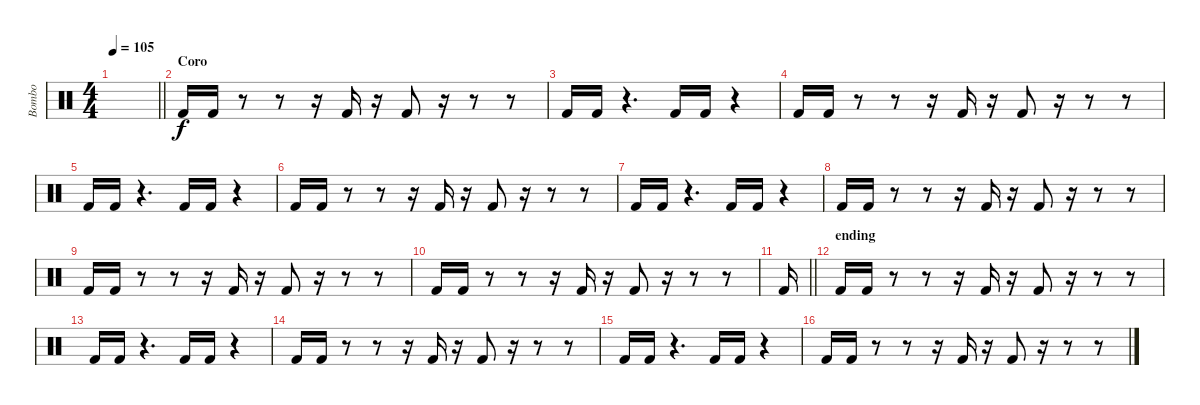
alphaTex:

\track ("Bombo" "Bombo") {instrument percussion}
\staff {score}
\articulation defaults
\ts (4 4)
\tempo 105
\clef neutral
\barLineRight lightlight
\ks c
|
\section ("" "Coro")
"Kick (hit) 2".16{dy f} "Kick (hit) 2".16 r.8 r.8 r.16 "Kick (hit) 2".16 r.16 "Kick (hit) 2".8 r.16 r.8 r.8 |
"Kick (hit) 2".16 "Kick (hit) 2".16 r.4{d} "Kick (hit) 2".16 "Kick (hit) 2".16 r.4 |
"Kick (hit) 2".16 "Kick (hit) 2".16 r.8 r.8 r.16 "Kick (hit) 2".16 r.16 "Kick (hit) 2".8 r.16 r.8 r.8 |
"Kick (hit) 2".16 "Kick (hit) 2".16 r.4{d} "Kick (hit) 2".16 "Kick (hit) 2".16 r.4 |
"Kick (hit) 2".16 "Kick (hit) 2".16 r.8 r.8 r.16 "Kick (hit) 2".16 r.16 "Kick (hit) 2".8 r.16 r.8 r.8 |
"Kick (hit) 2".16 "Kick (hit) 2".16 r.4{d} "Kick (hit) 2".16 "Kick (hit) 2".16 r.4 |
"Kick (hit) 2".16 "Kick (hit) 2".16 r.8 r.8 r.16 "Kick (hit) 2".16 r.16 "Kick (hit) 2".8 r.16 r.8 r.8 |
"Kick (hit) 2".16 "Kick (hit) 2".16 r.8 r.8 r.16 "Kick (hit) 2".16 r.16 "Kick (hit) 2".8 r.16 r.8 r.8 |
"Kick (hit) 2".16 "Kick (hit) 2".16 r.8 r.8 r.16 "Kick (hit) 2".16 r.16 "Kick (hit) 2".8 r.16 r.8 r.8 |
\barLineRight lightlight "Kick (hit) 2".16
|
\section ("" "ending")
"Kick (hit) 2".16 "Kick (hit) 2".16 r.8 r.8 r.16 "Kick (hit) 2".16 r.16 "Kick (hit) 2".8 r.16 r.8 r.8 |
"Kick (hit) 2".16 "Kick (hit) 2".16 r.4{d} "Kick (hit) 2".16 "Kick (hit) 2".16 r.4 |
"Kick (hit) 2".16 "Kick (hit) 2".16 r.8 r.8 r.16 "Kick (hit) 2".16 r.16 "Kick (hit) 2".8 r.16 r.8 r.8 |
"Kick (hit) 2".16 "Kick (hit) 2".16 r.4{d} "Kick (hit) 2".16 "Kick (hit) 2".16 r.4 |
"Kick (hit) 2".16 "Kick (hit) 2".16 r.8 r.8 r.16 "Kick (hit) 2".16 r.16 "Kick (hit) 2".8 r.16 r.8 r.8
